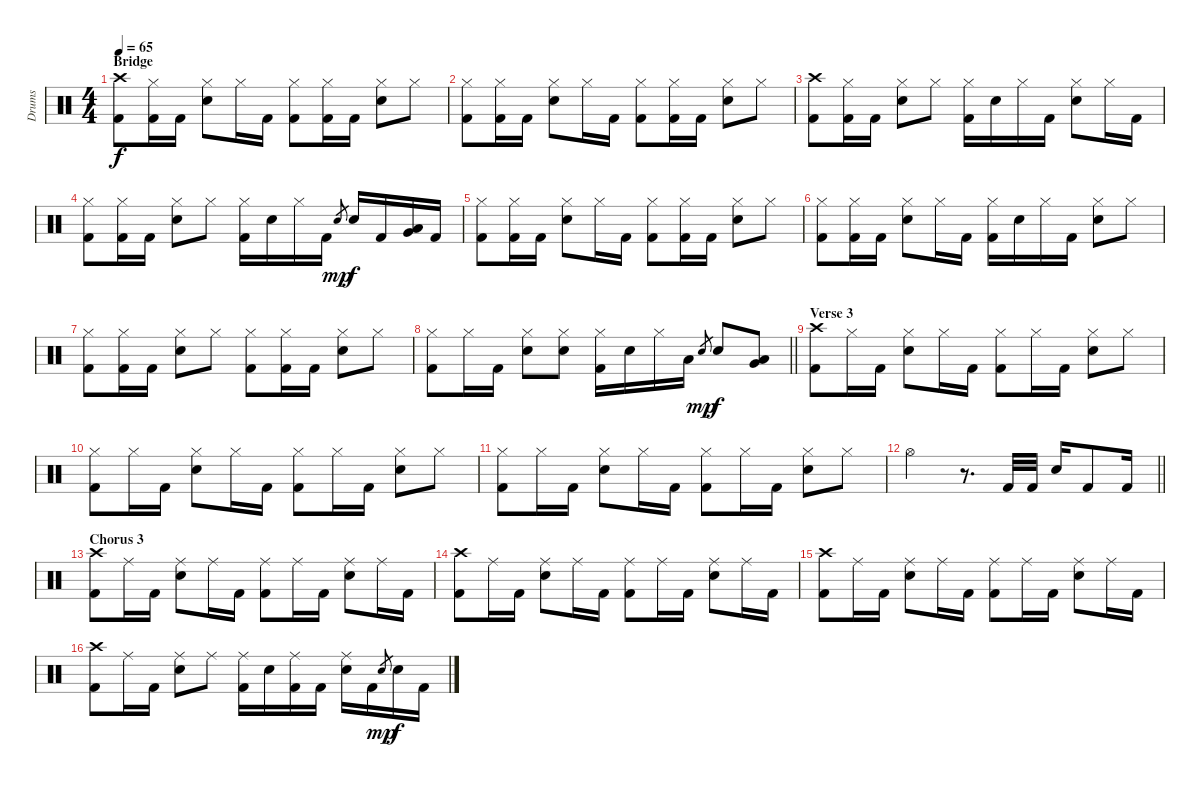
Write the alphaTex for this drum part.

\track ("Drums" "Drums") {instrument percussion}
\staff {score}
\articulation defaults
\ts (4 4)
\section ("" "Bridge")
\tempo 65
\clef neutral
\ks c
("Crash high (hit)" "Kick (hit) 2").8{dy f} ("Hi-Hat (closed)" "Kick (hit) 2").16 "Kick (hit) 2".16 ("Hi-Hat (closed)" "Electric Snare (hit)").8 "Hi-Hat (closed)".16 "Kick (hit) 2".16 ("Hi-Hat (closed)" "Kick (hit) 2").8 ("Hi-Hat (closed)" "Kick (hit) 2").16 "Kick (hit) 2".16 ("Hi-Hat (closed)" "Electric Snare (hit)").8 "Hi-Hat (closed)".8 |
("Hi-Hat (closed)" "Kick (hit) 2").8 ("Hi-Hat (closed)" "Kick (hit) 2").16 "Kick (hit) 2".16 ("Hi-Hat (closed)" "Electric Snare (hit)").8 "Hi-Hat (closed)".16 "Kick (hit) 2".16 ("Hi-Hat (closed)" "Kick (hit) 2").8 ("Hi-Hat (closed)" "Kick (hit) 2").16 "Kick (hit) 2".16 ("Hi-Hat (closed)" "Electric Snare (hit)").8 "Hi-Hat (closed)".8 |
("Crash high (hit)" "Kick (hit) 2").8 ("Hi-Hat (closed)" "Kick (hit) 2").16 "Kick (hit) 2".16 ("Hi-Hat (closed)" "Electric Snare (hit)").8 "Hi-Hat (closed)".8 ("Hi-Hat (closed)" "Kick (hit) 2").16 "Electric Snare (hit)".16 "Hi-Hat (closed)".16 "Kick (hit) 2".16 ("Hi-Hat (closed)" "Electric Snare (hit)").8 "Hi-Hat (closed)".16 "Kick (hit) 2".16 |
("Hi-Hat (closed)" "Kick (hit) 2").8 ("Hi-Hat (closed)" "Kick (hit) 2").16 "Kick (hit) 2".16 ("Hi-Hat (closed)" "Electric Snare (hit)").8 "Hi-Hat (closed)".8 ("Hi-Hat (closed)" "Kick (hit) 2").16 "Electric Snare (hit)".16 "Hi-Hat (closed)".16 "Kick (hit) 2".16 "Electric Snare (hit)".8{gr dy mp} "Electric Snare (hit)".16{dy f} "Kick (hit) 2".16 ("Very Low Tom (hit)" "Low Tom (hit)").16 "Kick (hit) 2".16 |
("Hi-Hat (closed)" "Kick (hit) 2").8 ("Hi-Hat (closed)" "Kick (hit) 2").16 "Kick (hit) 2".16 ("Hi-Hat (closed)" "Electric Snare (hit)").8 "Hi-Hat (closed)".16 "Kick (hit) 2".16 ("Hi-Hat (closed)" "Kick (hit) 2").8 ("Hi-Hat (closed)" "Kick (hit) 2").16 "Kick (hit) 2".16 ("Hi-Hat (closed)" "Electric Snare (hit)").8 "Hi-Hat (closed)".8 |
("Hi-Hat (closed)" "Kick (hit) 2").8 ("Hi-Hat (closed)" "Kick (hit) 2").16 "Kick (hit) 2".16 ("Hi-Hat (closed)" "Electric Snare (hit)").8 "Hi-Hat (closed)".16 "Kick (hit) 2".16 ("Hi-Hat (closed)" "Kick (hit) 2").16 "Electric Snare (hit)".16 "Hi-Hat (closed)".16 "Kick (hit) 2".16 ("Hi-Hat (closed)" "Electric Snare (hit)").8 "Hi-Hat (closed)".8 |
("Hi-Hat (closed)" "Kick (hit) 2").8 ("Hi-Hat (closed)" "Kick (hit) 2").16 "Kick (hit) 2".16 ("Hi-Hat (closed)" "Electric Snare (hit)").8 "Hi-Hat (closed)".8 ("Hi-Hat (closed)" "Kick (hit) 2").8 ("Hi-Hat (closed)" "Kick (hit) 2").16 "Kick (hit) 2".16 ("Hi-Hat (closed)" "Electric Snare (hit)").8 "Hi-Hat (closed)".8 |
\barLineRight lightlight
("Hi-Hat (closed)" "Kick (hit) 2").8 "Hi-Hat (closed)".16 "Kick (hit) 2".16 ("Hi-Hat (closed)" "Electric Snare (hit)").8 ("Hi-Hat (closed)" "Electric Snare (hit)").8 ("Hi-Hat (closed)" "Kick (hit) 2").16 "Electric Snare (hit)".16 "Hi-Hat (closed)".16 "Low Tom (hit)".16 "Electric Snare (hit)".8{gr dy mp} "Electric Snare (hit)".8{dy f} ("Very Low Tom (hit)" "Low Tom (hit)").8 |
\section ("" "Verse 3")
("Crash high (hit)" "Kick (hit) 2").8 "Hi-Hat (closed)".16 "Kick (hit) 2".16 ("Hi-Hat (closed)" "Electric Snare (hit)").8 "Hi-Hat (closed)".16 "Kick (hit) 2".16 ("Hi-Hat (closed)" "Kick (hit) 2").8 "Hi-Hat (closed)".16 "Kick (hit) 2".16 ("Hi-Hat (closed)" "Electric Snare (hit)").8 "Hi-Hat (closed)".8 |
("Hi-Hat (closed)" "Kick (hit) 2").8 "Hi-Hat (closed)".16 "Kick (hit) 2".16 ("Hi-Hat (closed)" "Electric Snare (hit)").8 "Hi-Hat (closed)".16 "Kick (hit) 2".16 ("Hi-Hat (closed)" "Kick (hit) 2").8 "Hi-Hat (closed)".16 "Kick (hit) 2".16 ("Hi-Hat (closed)" "Electric Snare (hit)").8 "Hi-Hat (closed)".8 |
("Hi-Hat (closed)" "Kick (hit) 2").8 "Hi-Hat (closed)".16 "Kick (hit) 2".16 ("Hi-Hat (closed)" "Electric Snare (hit)").8 "Hi-Hat (closed)".16 "Kick (hit) 2".16 ("Hi-Hat (closed)" "Kick (hit) 2").8 "Hi-Hat (closed)".16 "Kick (hit) 2".16 ("Hi-Hat (closed)" "Electric Snare (hit)").8 "Hi-Hat (closed)".8 |
\barLineRight lightlight "Hi-Hat (open)".2
r.8{d} "Kick (hit) 2".32 "Kick (hit) 2".32 "Electric Snare (hit)".16 "Kick (hit) 2".8 "Kick (hit) 2".16 |
\section ("" "Chorus 3")
("Crash high (hit)" "Kick (hit) 2").8 "Ride (middle)".16 "Kick (hit) 2".16 ("Ride (middle)" "Electric Snare (hit)").8 "Ride (middle)".16 "Kick (hit) 2".16 ("Ride (middle)" "Kick (hit) 2").8 "Ride (middle)".16 "Kick (hit) 2".16 ("Ride (middle)" "Electric Snare (hit)").8 "Ride (middle)".16 "Kick (hit) 2".16 |
("Crash high (hit)" "Kick (hit) 2").8 "Ride (middle)".16 "Kick (hit) 2".16 ("Ride (middle)" "Electric Snare (hit)").8 "Ride (middle)".16 "Kick (hit) 2".16 ("Ride (middle)" "Kick (hit) 2").8 "Ride (middle)".16 "Kick (hit) 2".16 ("Ride (middle)" "Electric Snare (hit)").8 "Ride (middle)".16 "Kick (hit) 2".16 |
("Crash high (hit)" "Kick (hit) 2").8 "Ride (middle)".16 "Kick (hit) 2".16 ("Ride (middle)" "Electric Snare (hit)").8 "Ride (middle)".16 "Kick (hit) 2".16 ("Ride (middle)" "Kick (hit) 2").8 "Ride (middle)".16 "Kick (hit) 2".16 ("Ride (middle)" "Electric Snare (hit)").8 "Ride (middle)".16 "Kick (hit) 2".16 |
("Crash high (hit)" "Kick (hit) 2").8 "Ride (middle)".16 "Kick (hit) 2".16 ("Ride (middle)" "Electric Snare (hit)").8 "Ride (middle)".8 ("Ride (middle)" "Kick (hit) 2").16 "Electric Snare (hit)".16 ("Ride (middle)" "Kick (hit) 2").16 "Kick (hit) 2".16 ("Ride (middle)" "Electric Snare (hit)").16 "Kick (hit) 2".16 "Electric Snare (hit)".8{gr dy mp} "Electric Snare (hit)".16{dy f} "Kick (hit) 2".16
